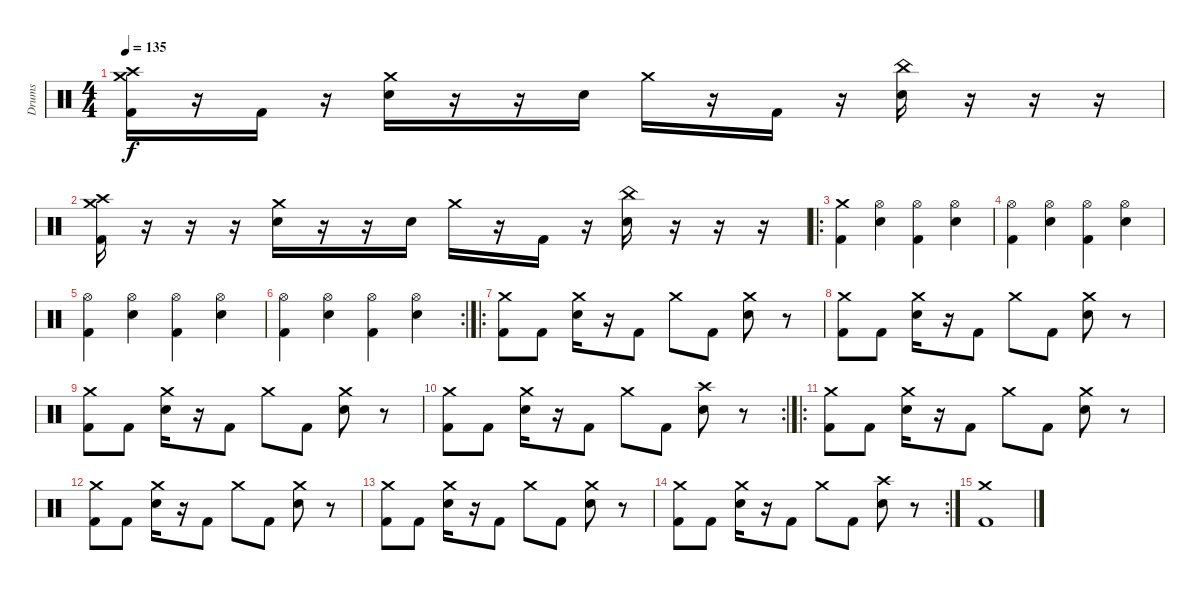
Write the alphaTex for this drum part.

\track ("Drums" "Drums") {instrument percussion}
\staff {score}
\articulation defaults
\ts (4 4)
\tempo 135
\clef neutral
\ks c
("Crash high (hit)" "Crash medium (hit)" "Kick (hit) 2").16{dy f} r.16 "Kick (hit) 2".16 r.16 ("Crash medium (hit)" "Electric Snare (hit)").16 r.16 r.16 "Electric Snare (hit)".16 "Crash medium (hit)".16 r.16 "Kick (hit) 2".16 r.16 ("China (hit)" "Electric Snare (hit)").16 r.16 r.16 r.16 |
("Crash high (hit)" "Crash medium (hit)" "Kick (hit) 2").16 r.16 r.16 r.16 ("Crash medium (hit)" "Electric Snare (hit)").16 r.16 r.16 "Electric Snare (hit)".16 "Crash medium (hit)".16 r.16 "Kick (hit) 2".16 r.16 ("China (hit)" "Electric Snare (hit)").16 r.16 r.16 r.16 |
\ro
("Crash medium (hit)" "Kick (hit) 2").4 ("Hi-Hat (open)" "Electric Snare (hit)").4 ("Hi-Hat (open)" "Kick (hit) 2").4 ("Hi-Hat (open)" "Electric Snare (hit)").4 |
("Hi-Hat (open)" "Kick (hit) 2").4 ("Hi-Hat (open)" "Electric Snare (hit)").4 ("Hi-Hat (open)" "Kick (hit) 2").4 ("Hi-Hat (open)" "Electric Snare (hit)").4 |
("Hi-Hat (open)" "Kick (hit) 2").4 ("Hi-Hat (open)" "Electric Snare (hit)").4 ("Hi-Hat (open)" "Kick (hit) 2").4 ("Hi-Hat (open)" "Electric Snare (hit)").4 |
\rc 2
("Hi-Hat (open)" "Kick (hit) 2").4 ("Hi-Hat (open)" "Electric Snare (hit)").4 ("Hi-Hat (open)" "Kick (hit) 2").4 ("Hi-Hat (open)" "Electric Snare (hit)").4 |
\ro
("Crash medium (hit)" "Kick (hit) 2").8 "Kick (hit) 2".8 ("Crash medium (hit)" "Electric Snare (hit)").16 r.16 "Kick (hit) 2".8 "Crash medium (hit)".8 "Kick (hit) 2".8 ("Crash medium (hit)" "Electric Snare (hit)").8 r.8 |
("Crash medium (hit)" "Kick (hit) 2").8 "Kick (hit) 2".8 ("Crash medium (hit)" "Electric Snare (hit)").16 r.16 "Kick (hit) 2".8 "Crash medium (hit)".8 "Kick (hit) 2".8 ("Crash medium (hit)" "Electric Snare (hit)").8 r.8 |
("Crash medium (hit)" "Kick (hit) 2").8 "Kick (hit) 2".8 ("Crash medium (hit)" "Electric Snare (hit)").16 r.16 "Kick (hit) 2".8 "Crash medium (hit)".8 "Kick (hit) 2".8 ("Crash medium (hit)" "Electric Snare (hit)").8 r.8 |
\rc 2
("Crash medium (hit)" "Kick (hit) 2").8 "Kick (hit) 2".8 ("Crash medium (hit)" "Electric Snare (hit)").16 r.16 "Kick (hit) 2".8 "Crash medium (hit)".8 "Kick (hit) 2".8 ("Crash high (hit)" "Electric Snare (hit)").8 r.8 |
\ro
("Crash medium (hit)" "Kick (hit) 2").8 "Kick (hit) 2".8 ("Crash medium (hit)" "Electric Snare (hit)").16 r.16 "Kick (hit) 2".8 "Crash medium (hit)".8 "Kick (hit) 2".8 ("Crash medium (hit)" "Electric Snare (hit)").8 r.8 |
("Crash medium (hit)" "Kick (hit) 2").8 "Kick (hit) 2".8 ("Crash medium (hit)" "Electric Snare (hit)").16 r.16 "Kick (hit) 2".8 "Crash medium (hit)".8 "Kick (hit) 2".8 ("Crash medium (hit)" "Electric Snare (hit)").8 r.8 |
("Crash medium (hit)" "Kick (hit) 2").8 "Kick (hit) 2".8 ("Crash medium (hit)" "Electric Snare (hit)").16 r.16 "Kick (hit) 2".8 "Crash medium (hit)".8 "Kick (hit) 2".8 ("Crash medium (hit)" "Electric Snare (hit)").8 r.8 |
\rc 2
("Crash medium (hit)" "Kick (hit) 2").8 "Kick (hit) 2".8 ("Crash medium (hit)" "Electric Snare (hit)").16 r.16 "Kick (hit) 2".8 "Crash medium (hit)".8 "Kick (hit) 2".8 ("Crash high (hit)" "Electric Snare (hit)").8 r.8 |
("Crash medium (hit)" "Kick (hit) 2").1
